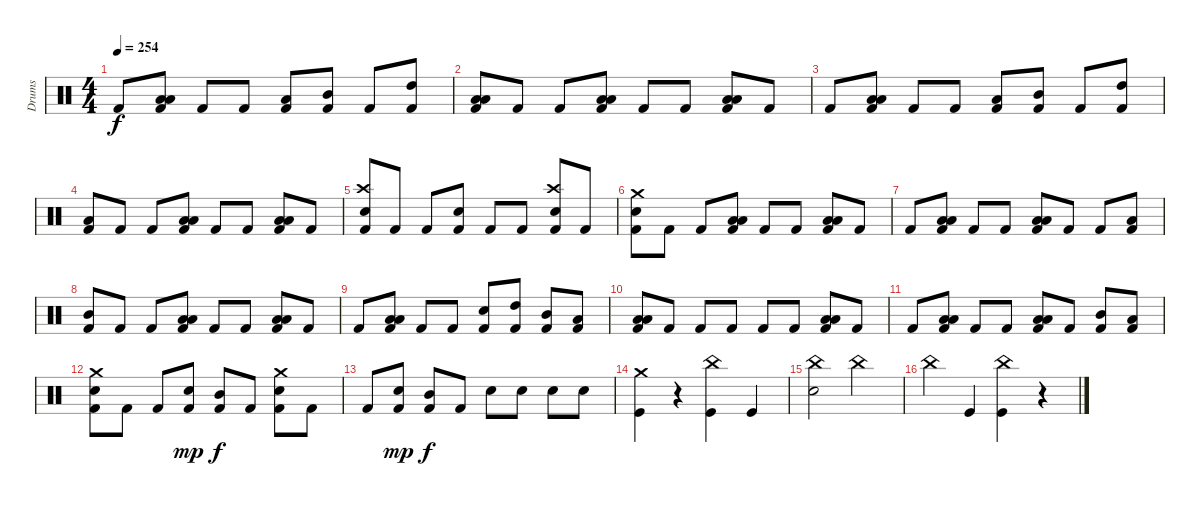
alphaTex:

\track ("Drums" "Drums") {instrument percussion}
\staff {score}
\articulation defaults
\ts (4 4)
\tempo 254
\clef neutral
\ks c "Kick (hit) 2".8{dy f}
("Low Tom (hit)" "Low Tom (hit)" "Kick (hit) 2").8{bu 60} "Kick (hit) 2".8 "Kick (hit) 2".8 ("Low Tom (hit)" "Kick (hit) 2").8 ("Mid Tom (hit)" "Kick (hit) 2").8 "Kick (hit) 2".8 ("High Tom (hit)" "Kick (hit) 2").8 |
("Low Tom (hit)" "Low Tom (hit)" "Kick (hit) 2").8{bu 60} "Kick (hit) 2".8 "Kick (hit) 2".8 ("Low Tom (hit)" "Low Tom (hit)" "Kick (hit) 2").8{bu 60} "Kick (hit) 2".8 "Kick (hit) 2".8 ("Low Tom (hit)" "Low Tom (hit)" "Kick (hit) 2").8{bu 60} "Kick (hit) 2".8 |
"Kick (hit) 2".8 ("Low Tom (hit)" "Low Tom (hit)" "Kick (hit) 2").8{bu 60} "Kick (hit) 2".8 "Kick (hit) 2".8 ("Low Tom (hit)" "Kick (hit) 2").8 ("Mid Tom (hit)" "Kick (hit) 2").8 "Kick (hit) 2".8 ("High Tom (hit)" "Kick (hit) 2").8 |
("Low Tom (hit)" "Kick (hit) 2").8 "Kick (hit) 2".8 "Kick (hit) 2".8 ("Low Tom (hit)" "Low Tom (hit)" "Kick (hit) 2").8{bu 60} "Kick (hit) 2".8 "Kick (hit) 2".8 ("Low Tom (hit)" "Low Tom (hit)" "Kick (hit) 2").8{bu 60} "Kick (hit) 2".8 |
("Crash high (hit)" "Electric Snare (hit)" "Kick (hit) 2").8 "Kick (hit) 2".8 "Kick (hit) 2".8 ("Electric Snare (hit)" "Kick (hit) 2").8 "Kick (hit) 2".8 "Kick (hit) 2".8 ("Crash high (hit)" "Electric Snare (hit)" "Kick (hit) 2").8 "Kick (hit) 2".8 |
("Crash medium (hit)" "Electric Snare (hit)" "Kick (hit) 2").8 "Kick (hit) 2".8 "Kick (hit) 2".8 ("Low Tom (hit)" "Low Tom (hit)" "Kick (hit) 2").8{bu 60} "Kick (hit) 2".8 "Kick (hit) 2".8 ("Low Tom (hit)" "Low Tom (hit)" "Kick (hit) 2").8{bu 60} "Kick (hit) 2".8 |
"Kick (hit) 2".8 ("Low Tom (hit)" "Low Tom (hit)" "Kick (hit) 2").8{bu 60} "Kick (hit) 2".8 "Kick (hit) 2".8 ("Low Tom (hit)" "Low Tom (hit)" "Kick (hit) 2").8{bu 60} "Kick (hit) 2".8 "Kick (hit) 2".8 ("Low Tom (hit)" "Kick (hit) 2").8 |
("Mid Tom (hit)" "Kick (hit) 2").8 "Kick (hit) 2".8 "Kick (hit) 2".8 ("Low Tom (hit)" "Low Tom (hit)" "Kick (hit) 2").8{bu 60} "Kick (hit) 2".8 "Kick (hit) 2".8 ("Low Tom (hit)" "Low Tom (hit)" "Kick (hit) 2").8{bu 60} "Kick (hit) 2".8 |
"Kick (hit) 2".8 ("Low Tom (hit)" "Low Tom (hit)" "Kick (hit) 2").8{bu 60} "Kick (hit) 2".8 "Kick (hit) 2".8 ("Electric Snare (hit)" "Kick (hit) 2").8 ("High Tom (hit)" "Kick (hit) 2").8 ("Mid Tom (hit)" "Kick (hit) 2").8 ("Low Tom (hit)" "Kick (hit) 2").8 |
("Low Tom (hit)" "Low Tom (hit)" "Kick (hit) 2").8{bu 60} "Kick (hit) 2".8 "Kick (hit) 2".8 "Kick (hit) 2".8 "Kick (hit) 2".8 "Kick (hit) 2".8 ("Low Tom (hit)" "Low Tom (hit)" "Kick (hit) 2").8{bu 60} "Kick (hit) 2".8 |
"Kick (hit) 2".8 ("Low Tom (hit)" "Low Tom (hit)" "Kick (hit) 2").8{bu 60} "Kick (hit) 2".8 "Kick (hit) 2".8 ("Low Tom (hit)" "Low Tom (hit)" "Kick (hit) 2").8{bu 60} "Kick (hit) 2".8 ("Mid Tom (hit)" "Kick (hit) 2").8 ("Low Tom (hit)" "Kick (hit) 2").8 |
("Crash medium (hit)" "Electric Snare (hit)" "Kick (hit) 2").8 "Kick (hit) 2".8 "Kick (hit) 2".8 ("Electric Snare (hit)" "Kick (hit) 2").8{dy mp} ("Mid Tom (hit)" "Kick (hit) 2").8{dy f} "Kick (hit) 2".8 ("Crash medium (hit)" "Electric Snare (hit)" "Kick (hit) 2").8 "Kick (hit) 2".8 |
"Kick (hit) 2".8 ("Electric Snare (hit)" "Kick (hit) 2").8{dy mp} ("Mid Tom (hit)" "Kick (hit) 2").8{dy f} "Kick (hit) 2".8 "Electric Snare (hit)".8 "Electric Snare (hit)".8 "Electric Snare (hit)".8 "Electric Snare (hit)".8 |
("Crash medium (hit)" "Kick (hit)").4 r.4 ("China (hit)" "Kick (hit)").4 "Kick (hit)".4 |
("China (hit)" "Electric Snare (hit)").2 "China (hit)".2 |
"China (hit)".4 "Kick (hit)".4 ("China (hit)" "Kick (hit)").4 r.4
